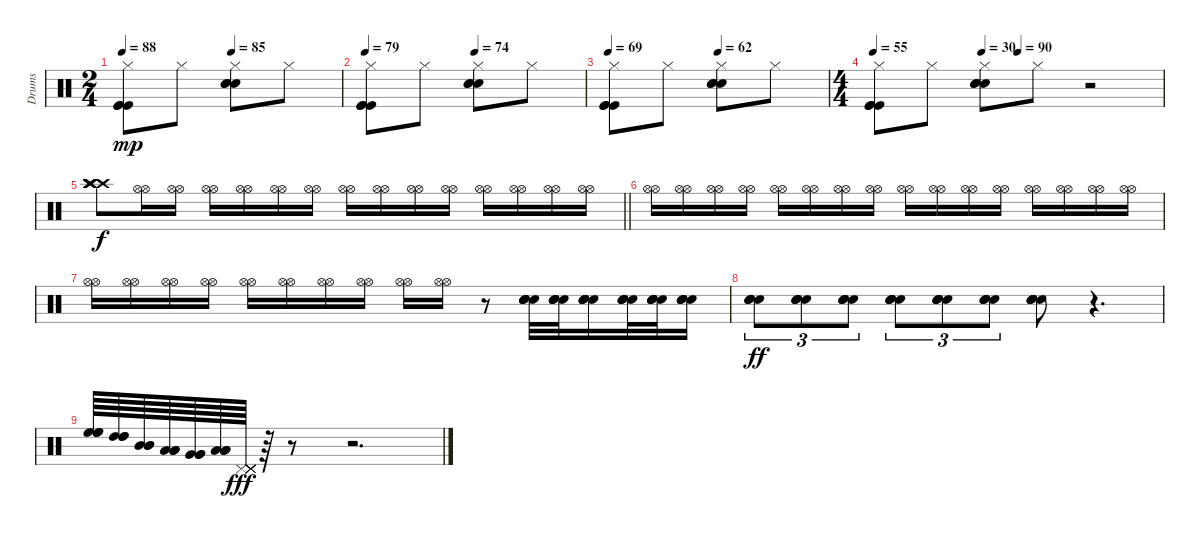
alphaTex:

\track ("Drums" "Drums") {instrument percussion}
\staff {score}
\articulation defaults
\ts (2 4)
\tempo 88
\tempo (85 0.5)
\clef neutral
\ks c
("Kick (hit)" "Kick (hit)" "Kick (hit)" "Hi-Hat (closed)").8{dy mp} "Hi-Hat (closed)".8 ("Snare (hit) 2" "Snare (hit) 2" "Snare (hit) 2" "Hi-Hat (closed)").8 "Hi-Hat (closed)".8 |
\tempo 79
\tempo (74 0.5)
("Kick (hit)" "Kick (hit)" "Kick (hit)" "Hi-Hat (closed)").8 "Hi-Hat (closed)".8 ("Snare (hit) 2" "Snare (hit) 2" "Snare (hit) 2" "Hi-Hat (closed)").8 "Hi-Hat (closed)".8 |
\tempo 69
\tempo (62 0.5)
("Kick (hit)" "Kick (hit)" "Kick (hit)" "Hi-Hat (closed)").8 "Hi-Hat (closed)".8 ("Snare (hit) 2" "Snare (hit) 2" "Snare (hit) 2" "Hi-Hat (closed)").8 "Hi-Hat (closed)".8 |
\ts (4 4)
\tempo 55
\tempo (30 0.375)
\tempo (90 0.5)
("Kick (hit)" "Kick (hit)" "Kick (hit)" "Hi-Hat (closed)").8 "Hi-Hat (closed)".8 ("Snare (hit) 2" "Snare (hit) 2" "Snare (hit) 2" "Hi-Hat (closed)").8 "Hi-Hat (closed)".8 r.2 |
\barLineRight lightlight
("Crash high (hit)" "Crash high (hit)" "Crash high (hit)" "Crash high (hit)" "Crash high (hit)" "Crash high (hit)").8{dy f} ("Hi-Hat (open)" "Hi-Hat (open)").16 ("Hi-Hat (open)" "Hi-Hat (open)").16 ("Hi-Hat (open)" "Hi-Hat (open)").16 ("Hi-Hat (open)" "Hi-Hat (open)").16 ("Hi-Hat (open)" "Hi-Hat (open)").16 ("Hi-Hat (open)" "Hi-Hat (open)").16 ("Hi-Hat (open)" "Hi-Hat (open)").16 ("Hi-Hat (open)" "Hi-Hat (open)").16 ("Hi-Hat (open)" "Hi-Hat (open)").16 ("Hi-Hat (open)" "Hi-Hat (open)").16 ("Hi-Hat (open)" "Hi-Hat (open)").16 ("Hi-Hat (open)" "Hi-Hat (open)").16 ("Hi-Hat (open)" "Hi-Hat (open)").16 ("Hi-Hat (open)" "Hi-Hat (open)").16 |
("Hi-Hat (open)" "Hi-Hat (open)").16 ("Hi-Hat (open)" "Hi-Hat (open)").16 ("Hi-Hat (open)" "Hi-Hat (open)").16 ("Hi-Hat (open)" "Hi-Hat (open)").16 ("Hi-Hat (open)" "Hi-Hat (open)").16 ("Hi-Hat (open)" "Hi-Hat (open)").16 ("Hi-Hat (open)" "Hi-Hat (open)").16 ("Hi-Hat (open)" "Hi-Hat (open)").16 ("Hi-Hat (open)" "Hi-Hat (open)").16 ("Hi-Hat (open)" "Hi-Hat (open)").16 ("Hi-Hat (open)" "Hi-Hat (open)").16 ("Hi-Hat (open)" "Hi-Hat (open)").16 ("Hi-Hat (open)" "Hi-Hat (open)").16 ("Hi-Hat (open)" "Hi-Hat (open)").16 ("Hi-Hat (open)" "Hi-Hat (open)").16 ("Hi-Hat (open)" "Hi-Hat (open)").16 |
("Hi-Hat (open)" "Hi-Hat (open)").16{volume 7} ("Hi-Hat (open)" "Hi-Hat (open)").16 ("Hi-Hat (open)" "Hi-Hat (open)").16 ("Hi-Hat (open)" "Hi-Hat (open)").16 ("Hi-Hat (open)" "Hi-Hat (open)").16 ("Hi-Hat (open)" "Hi-Hat (open)").16 ("Hi-Hat (open)" "Hi-Hat (open)").16 ("Hi-Hat (open)" "Hi-Hat (open)").16 ("Hi-Hat (open)" "Hi-Hat (open)").16 ("Hi-Hat (open)" "Hi-Hat (open)").16 r.8 ("Snare (hit) 2" "Snare (hit) 2" "Snare (hit) 2" "Snare (hit) 2").32{volume 10} ("Snare (hit) 2" "Snare (hit) 2" "Snare (hit) 2" "Snare (hit) 2").32 ("Snare (hit) 2" "Snare (hit) 2" "Snare (hit) 2" "Snare (hit) 2").16 ("Snare (hit) 2" "Snare (hit) 2" "Snare (hit) 2" "Snare (hit) 2").32 ("Snare (hit) 2" "Snare (hit) 2" "Snare (hit) 2" "Snare (hit) 2").32 ("Snare (hit) 2" "Snare (hit) 2" "Snare (hit) 2" "Snare (hit) 2").16 |
("Snare (hit) 2" "Snare (hit) 2" "Snare (hit) 2" "Snare (hit) 2").8{tu (3 2) dy ff volume 10} ("Snare (hit) 2" "Snare (hit) 2" "Snare (hit) 2" "Snare (hit) 2").8{tu (3 2)} ("Snare (hit) 2" "Snare (hit) 2" "Snare (hit) 2" "Snare (hit) 2").8{tu (3 2)} ("Snare (hit) 2" "Snare (hit) 2" "Snare (hit) 2" "Snare (hit) 2").8{tu (3 2)} ("Snare (hit) 2" "Snare (hit) 2" "Snare (hit) 2" "Snare (hit) 2").8{tu (3 2)} ("Snare (hit) 2" "Snare (hit) 2" "Snare (hit) 2" "Snare (hit) 2").8{tu (3 2)} ("Snare (hit) 2" "Snare (hit) 2" "Snare (hit) 2" "Snare (hit) 2").8 r.4{d} |
("High Floor Tom (hit)" "High Floor Tom (hit)" "High Floor Tom (hit)").64{volume 13} ("High Tom (hit)" "High Tom (hit)" "High Tom (hit)").64 ("Mid Tom (hit)" "Mid Tom (hit)" "Mid Tom (hit)").64 ("Low Tom (hit)" "Low Tom (hit)" "Low Tom (hit)").64 ("Very Low Tom (hit)" "Very Low Tom (hit)" "Very Low Tom (hit)").64 ("Low Floor Tom (hit)" "Low Floor Tom (hit)" "Low Floor Tom (hit)").64 ("Pedal Hi-Hat (hit)" "Pedal Hi-Hat (hit)" "Pedal Hi-Hat (hit)" "Pedal Hi-Hat (hit)" "Pedal Hi-Hat (hit)" "Pedal Hi-Hat (hit)").64{dy fff volume 16} r.64 r.8 r.2{d}
